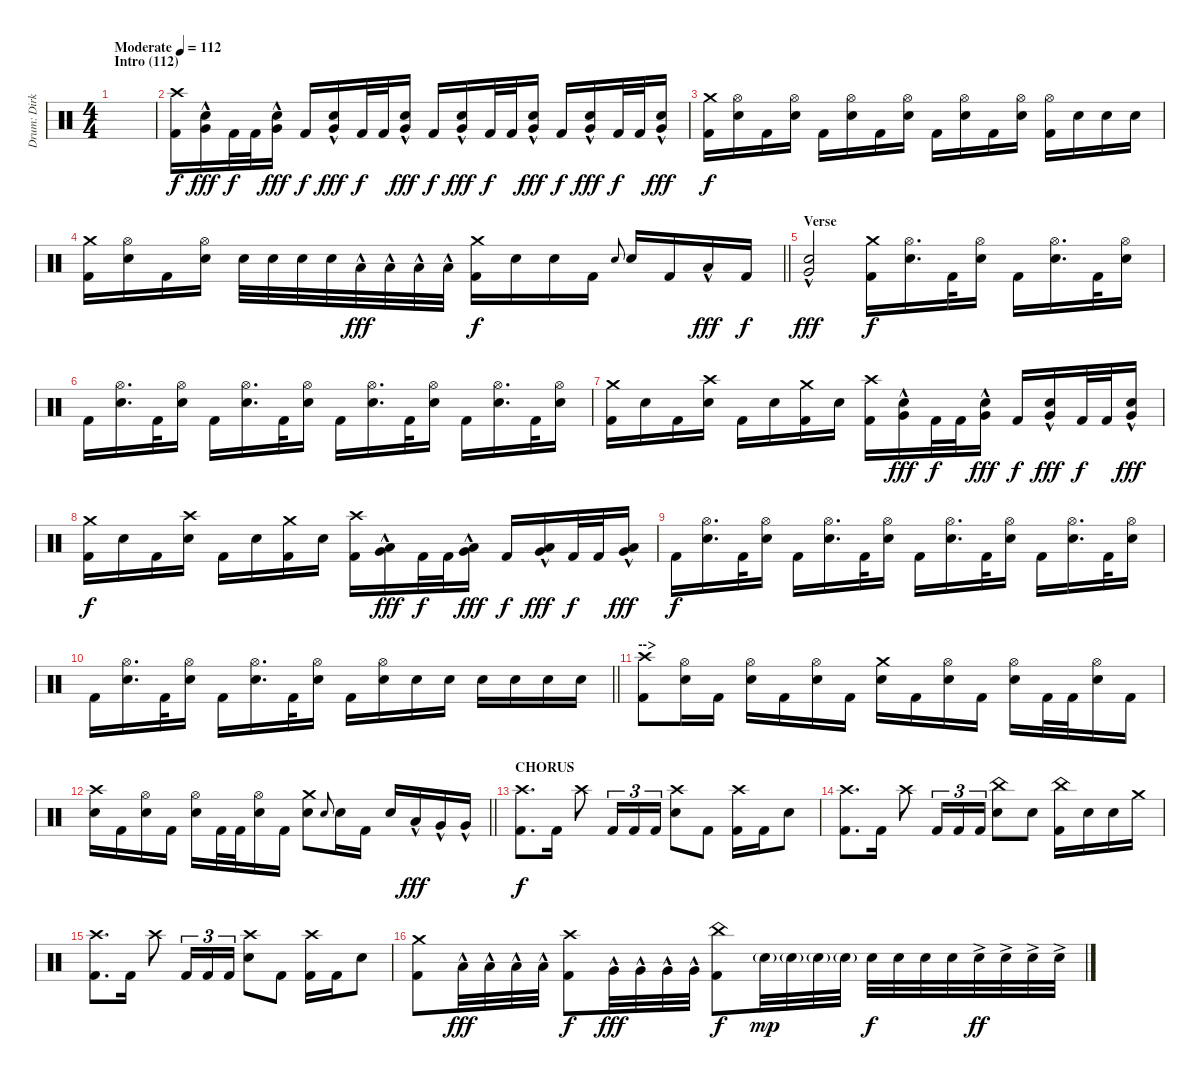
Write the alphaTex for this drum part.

\track ("Drum: Dirk" "Drum: Dirk") {instrument percussion}
\staff {score}
\articulation defaults
\ts (4 4)
\section ("" "Intro (112)")
\tempo (112 "Moderate")
\clef neutral
\ks c
|
("Crash high (hit)" "Kick (hit) 2").16 ("Electric Snare (hit)" "Very Low Tom (hit)"{hac}).16{dy fff} "Kick (hit) 2".32{dy f} "Kick (hit) 2".32 ("Electric Snare (hit)" "Very Low Tom (hit)"{hac}).16{dy fff} "Kick (hit) 2".16{dy f} ("Electric Snare (hit)" "Very Low Tom (hit)"{hac}).16{dy fff} "Kick (hit) 2".32{dy f} "Kick (hit) 2".32 ("Electric Snare (hit)" "Very Low Tom (hit)"{hac}).16{dy fff} "Kick (hit) 2".16{dy f} ("Electric Snare (hit)" "Very Low Tom (hit)"{hac}).16{dy fff} "Kick (hit) 2".32{dy f} "Kick (hit) 2".32 ("Electric Snare (hit)" "Very Low Tom (hit)"{hac}).16{dy fff} "Kick (hit) 2".16{dy f} ("Electric Snare (hit)" "Very Low Tom (hit)"{hac}).16{dy fff} "Kick (hit) 2".32{dy f} "Kick (hit) 2".32 ("Electric Snare (hit)" "Very Low Tom (hit)"{hac}).16{dy fff} |
("Crash medium (hit)" "Kick (hit) 2").16{dy f} ("Hi-Hat (open)" "Electric Snare (hit)").16 "Kick (hit) 2".16 ("Hi-Hat (open)" "Electric Snare (hit)").16 "Kick (hit) 2".16 ("Hi-Hat (open)" "Electric Snare (hit)").16 "Kick (hit) 2".16 ("Hi-Hat (open)" "Electric Snare (hit)").16 "Kick (hit) 2".16 ("Hi-Hat (open)" "Electric Snare (hit)").16 "Kick (hit) 2".16 ("Hi-Hat (open)" "Electric Snare (hit)").16 ("Hi-Hat (open)" "Kick (hit) 2").16 "Electric Snare (hit)".16 "Electric Snare (hit)".16 "Electric Snare (hit)".16 |
\barLineRight lightlight
("Crash medium (hit)" "Kick (hit) 2").16 ("Hi-Hat (open)" "Electric Snare (hit)").16 "Kick (hit) 2".16 ("Hi-Hat (open)" "Electric Snare (hit)").16 "Electric Snare (hit)".32 "Electric Snare (hit)".32 "Electric Snare (hit)".32 "Electric Snare (hit)".32 "Low Tom (hit)"{hac}.32{dy fff} "Low Tom (hit)"{hac}.32 "Low Tom (hit)"{hac}.32 "Low Tom (hit)"{hac}.32 ("Crash medium (hit)" "Kick (hit) 2").16{dy f} "Electric Snare (hit)".16 "Electric Snare (hit)".16 "Kick (hit) 2".16 "Electric Snare (hit)".8{gr onbeat} "Electric Snare (hit)".16 "Kick (hit) 2".16 "Low Tom (hit)"{hac}.16{dy fff} "Kick (hit) 2".16{dy f} |
\section ("" "Verse")
("Electric Snare (hit)" "Very Low Tom (hit)"{hac}).2{dy fff} ("Crash medium (hit)" "Kick (hit) 2").16{dy f} ("Hi-Hat (open)" "Electric Snare (hit)").16{d} "Kick (hit) 2".32 ("Hi-Hat (open)" "Electric Snare (hit)").16 "Kick (hit) 2".16 ("Hi-Hat (open)" "Electric Snare (hit)").16{d} "Kick (hit) 2".32 ("Hi-Hat (open)" "Electric Snare (hit)").16 |
"Kick (hit) 2".16 ("Hi-Hat (open)" "Electric Snare (hit)").16{d} "Kick (hit) 2".32 ("Hi-Hat (open)" "Electric Snare (hit)").16 "Kick (hit) 2".16 ("Hi-Hat (open)" "Electric Snare (hit)").16{d} "Kick (hit) 2".32 ("Hi-Hat (open)" "Electric Snare (hit)").16 "Kick (hit) 2".16 ("Hi-Hat (open)" "Electric Snare (hit)").16{d} "Kick (hit) 2".32 ("Hi-Hat (open)" "Electric Snare (hit)").16 "Kick (hit) 2".16 ("Hi-Hat (open)" "Electric Snare (hit)").16{d} "Kick (hit) 2".32 ("Hi-Hat (open)" "Electric Snare (hit)").16 |
("Crash medium (hit)" "Kick (hit) 2").16 "Electric Snare (hit)".16 "Kick (hit) 2".16 ("Crash high (hit)" "Electric Snare (hit)").16 "Kick (hit) 2".16 "Electric Snare (hit)".16 ("Crash medium (hit)" "Kick (hit) 2").16 "Electric Snare (hit)".16 ("Crash high (hit)" "Kick (hit) 2").16 ("Electric Snare (hit)" "Very Low Tom (hit)"{hac}).16{dy fff} "Kick (hit) 2".32{dy f} "Kick (hit) 2".32 ("Electric Snare (hit)" "Very Low Tom (hit)"{hac}).16{dy fff} "Kick (hit) 2".16{dy f} ("Electric Snare (hit)" "Very Low Tom (hit)"{hac}).16{dy fff} "Kick (hit) 2".32{dy f} "Kick (hit) 2".32 ("Electric Snare (hit)" "Very Low Tom (hit)"{hac}).16{dy fff} |
("Crash medium (hit)" "Kick (hit) 2").16{dy f} "Electric Snare (hit)".16 "Kick (hit) 2".16 ("Crash high (hit)" "Electric Snare (hit)").16 "Kick (hit) 2".16 "Electric Snare (hit)".16 ("Crash medium (hit)" "Kick (hit) 2").16 "Electric Snare (hit)".16 ("Crash high (hit)" "Kick (hit) 2").16 ("Low Tom (hit)"{hac} "Very Low Tom (hit)"{hac}).16{dy fff} "Kick (hit) 2".32{dy f} "Kick (hit) 2".32 ("Low Tom (hit)"{hac} "Very Low Tom (hit)"{hac}).16{dy fff} "Kick (hit) 2".16{dy f} ("Low Tom (hit)"{hac} "Very Low Tom (hit)"{hac}).16{dy fff} "Kick (hit) 2".32{dy f} "Kick (hit) 2".32 ("Low Tom (hit)"{hac} "Very Low Tom (hit)"{hac}).16{dy fff} |
"Kick (hit) 2".16{dy f} ("Hi-Hat (open)" "Electric Snare (hit)").16{d} "Kick (hit) 2".32 ("Hi-Hat (open)" "Electric Snare (hit)").16 "Kick (hit) 2".16 ("Hi-Hat (open)" "Electric Snare (hit)").16{d} "Kick (hit) 2".32 ("Hi-Hat (open)" "Electric Snare (hit)").16 "Kick (hit) 2".16 ("Hi-Hat (open)" "Electric Snare (hit)").16{d} "Kick (hit) 2".32 ("Hi-Hat (open)" "Electric Snare (hit)").16 "Kick (hit) 2".16 ("Hi-Hat (open)" "Electric Snare (hit)").16{d} "Kick (hit) 2".32 ("Hi-Hat (open)" "Electric Snare (hit)").16 |
\barLineRight lightlight "Kick (hit) 2".16
("Hi-Hat (open)" "Electric Snare (hit)").16{d} "Kick (hit) 2".32 ("Hi-Hat (open)" "Electric Snare (hit)").16 "Kick (hit) 2".16 ("Hi-Hat (open)" "Electric Snare (hit)").16{d} "Kick (hit) 2".32 ("Hi-Hat (open)" "Electric Snare (hit)").16 "Kick (hit) 2".16 ("Hi-Hat (open)" "Electric Snare (hit)").16 "Electric Snare (hit)".16 "Electric Snare (hit)".16 "Electric Snare (hit)".16 "Electric Snare (hit)".16 "Electric Snare (hit)".16 "Electric Snare (hit)".16 |
\section ("" "-->")
("Crash high (hit)" "Kick (hit) 2").8 ("Hi-Hat (open)" "Electric Snare (hit)").16 "Kick (hit) 2".16 ("Hi-Hat (open)" "Electric Snare (hit)").16 "Kick (hit) 2".16 ("Hi-Hat (open)" "Electric Snare (hit)").16 "Kick (hit) 2".16 ("Crash medium (hit)" "Electric Snare (hit)").16 "Kick (hit) 2".16 ("Hi-Hat (open)" "Electric Snare (hit)").16 "Kick (hit) 2".16 ("Hi-Hat (open)" "Electric Snare (hit)").16 "Kick (hit) 2".32 "Kick (hit) 2".32 ("Hi-Hat (open)" "Electric Snare (hit)").16 "Kick (hit) 2".16 |
\barLineRight lightlight
("Crash high (hit)" "Electric Snare (hit)").16 "Kick (hit) 2".16 ("Hi-Hat (open)" "Electric Snare (hit)").16 "Kick (hit) 2".16 ("Hi-Hat (open)" "Electric Snare (hit)").16 "Kick (hit) 2".32 "Kick (hit) 2".32 ("Hi-Hat (open)" "Electric Snare (hit)").16 "Kick (hit) 2".16 ("Crash medium (hit)" "Electric Snare (hit)").8 "Electric Snare (hit)".8{gr onbeat} "Electric Snare (hit)".16 "Kick (hit) 2".16 "Electric Snare (hit)".16 "Low Tom (hit)"{hac}.16{dy fff} "Very Low Tom (hit)"{hac}.16 "Very Low Tom (hit)"{hac}.16 |
\section ("" "CHORUS")
("Crash high (hit)" "Kick (hit) 2").8{d dy f} "Kick (hit) 2".16 "Crash high (hit)".8 "Kick (hit) 2".16{tu (3 2)} "Kick (hit) 2".16{tu (3 2)} "Kick (hit) 2".16{tu (3 2)} ("Crash high (hit)" "Electric Snare (hit)").8 "Kick (hit) 2".8 ("Crash high (hit)" "Kick (hit) 2").16 "Kick (hit) 2".16 "Electric Snare (hit)".8 |
("Crash high (hit)" "Kick (hit) 2").8{d} "Kick (hit) 2".16 "Crash high (hit)".8 "Kick (hit) 2".16{tu (3 2)} "Kick (hit) 2".16{tu (3 2)} "Kick (hit) 2".16{tu (3 2)} ("China (hit)" "Electric Snare (hit)").8 "Electric Snare (hit)".8 ("China (hit)" "Kick (hit) 2").16 "Electric Snare (hit)".16 "Electric Snare (hit)".16 "Crash medium (hit)".16 |
("Crash high (hit)" "Kick (hit) 2").8{d} "Kick (hit) 2".16 "Crash high (hit)".8 "Kick (hit) 2".16{tu (3 2)} "Kick (hit) 2".16{tu (3 2)} "Kick (hit) 2".16{tu (3 2)} ("Crash high (hit)" "Electric Snare (hit)").8 "Kick (hit) 2".8 ("Crash high (hit)" "Kick (hit) 2").16 "Kick (hit) 2".16 "Electric Snare (hit)".8 |
("Crash medium (hit)" "Kick (hit) 2").8 "Low Tom (hit)"{hac}.32{dy fff} "Low Tom (hit)"{hac}.32 "Low Tom (hit)"{hac}.32 "Low Tom (hit)"{hac}.32 ("Crash high (hit)" "Kick (hit) 2").8{dy f} "Very Low Tom (hit)"{hac}.32{dy fff} "Very Low Tom (hit)"{hac}.32 "Very Low Tom (hit)"{hac}.32 "Very Low Tom (hit)"{hac}.32 ("China (hit)" "Kick (hit) 2").8{dy f} "Electric Snare (hit)"{g}.32{dy mp} "Electric Snare (hit)"{g}.32 "Electric Snare (hit)"{g}.32 "Electric Snare (hit)"{g}.32 "Electric Snare (hit)".32{dy f} "Electric Snare (hit)".32 "Electric Snare (hit)".32 "Electric Snare (hit)".32 "Electric Snare (hit)"{ac}.32{dy ff} "Electric Snare (hit)"{ac}.32 "Electric Snare (hit)"{ac}.32 "Electric Snare (hit)"{ac}.32
